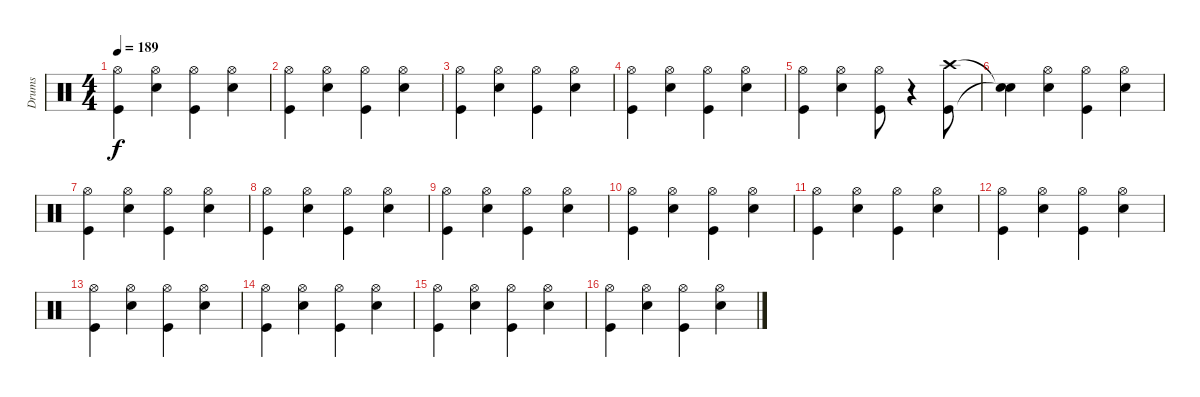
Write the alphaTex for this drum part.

\track ("Drums" "Drums") {instrument percussion}
\staff {score}
\articulation defaults
\ts (4 4)
\tempo 189
\clef neutral
\ks c
("Kick (hit)" "Hi-Hat (open)").4{dy f} ("Snare (hit) 2" "Hi-Hat (open)").4 ("Kick (hit)" "Hi-Hat (open)").4 ("Snare (hit) 2" "Hi-Hat (open)").4 |
("Kick (hit)" "Hi-Hat (open)").4 ("Snare (hit) 2" "Hi-Hat (open)").4 ("Kick (hit)" "Hi-Hat (open)").4 ("Snare (hit) 2" "Hi-Hat (open)").4 |
("Kick (hit)" "Hi-Hat (open)").4 ("Snare (hit) 2" "Hi-Hat (open)").4 ("Kick (hit)" "Hi-Hat (open)").4 ("Snare (hit) 2" "Hi-Hat (open)").4 |
("Kick (hit)" "Hi-Hat (open)").4 ("Snare (hit) 2" "Hi-Hat (open)").4 ("Kick (hit)" "Hi-Hat (open)").4 ("Snare (hit) 2" "Hi-Hat (open)").4 |
("Kick (hit)" "Hi-Hat (open)").4 ("Snare (hit) 2" "Hi-Hat (open)").4 ("Kick (hit)" "Hi-Hat (open)").8 r.4 ("Kick (hit)" "Crash high (hit)").8 |
("Snare (hit)"{t} "Snare (hit)"{t}).4 ("Snare (hit) 2" "Hi-Hat (open)").4 ("Kick (hit)" "Hi-Hat (open)").4 ("Snare (hit) 2" "Hi-Hat (open)").4 |
("Kick (hit)" "Hi-Hat (open)").4 ("Snare (hit) 2" "Hi-Hat (open)").4 ("Kick (hit)" "Hi-Hat (open)").4 ("Snare (hit) 2" "Hi-Hat (open)").4 |
("Kick (hit)" "Hi-Hat (open)").4 ("Snare (hit) 2" "Hi-Hat (open)").4 ("Kick (hit)" "Hi-Hat (open)").4 ("Snare (hit) 2" "Hi-Hat (open)").4 |
("Kick (hit)" "Hi-Hat (open)").4 ("Snare (hit) 2" "Hi-Hat (open)").4 ("Kick (hit)" "Hi-Hat (open)").4 ("Snare (hit) 2" "Hi-Hat (open)").4 |
("Kick (hit)" "Hi-Hat (open)").4 ("Snare (hit) 2" "Hi-Hat (open)").4 ("Kick (hit)" "Hi-Hat (open)").4 ("Snare (hit) 2" "Hi-Hat (open)").4 |
("Kick (hit)" "Hi-Hat (open)").4 ("Snare (hit) 2" "Hi-Hat (open)").4 ("Kick (hit)" "Hi-Hat (open)").4 ("Snare (hit) 2" "Hi-Hat (open)").4 |
("Kick (hit)" "Hi-Hat (open)").4 ("Snare (hit) 2" "Hi-Hat (open)").4 ("Kick (hit)" "Hi-Hat (open)").4 ("Snare (hit) 2" "Hi-Hat (open)").4 |
("Kick (hit)" "Hi-Hat (open)").4 ("Snare (hit) 2" "Hi-Hat (open)").4 ("Kick (hit)" "Hi-Hat (open)").4 ("Snare (hit) 2" "Hi-Hat (open)").4 |
("Kick (hit)" "Hi-Hat (open)").4 ("Snare (hit) 2" "Hi-Hat (open)").4 ("Kick (hit)" "Hi-Hat (open)").4 ("Snare (hit) 2" "Hi-Hat (open)").4 |
("Kick (hit)" "Hi-Hat (open)").4 ("Snare (hit) 2" "Hi-Hat (open)").4 ("Kick (hit)" "Hi-Hat (open)").4 ("Snare (hit) 2" "Hi-Hat (open)").4 |
("Kick (hit)" "Hi-Hat (open)").4 ("Snare (hit) 2" "Hi-Hat (open)").4 ("Kick (hit)" "Hi-Hat (open)").4 ("Snare (hit) 2" "Hi-Hat (open)").4
